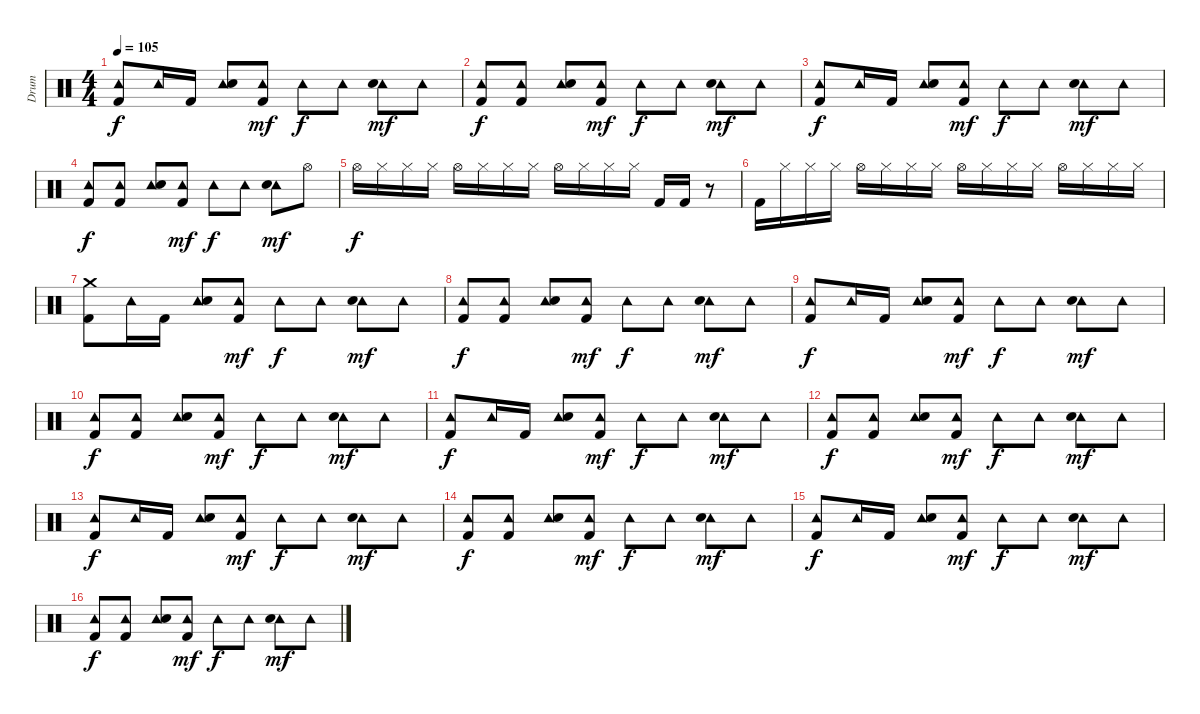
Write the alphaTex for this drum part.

\track ("Drum" "Drum") {instrument percussion}
\staff {score}
\articulation defaults
\ts (4 4)
\tempo 105
\clef neutral
\ks c
("Tambourine (hit)" "Kick (hit) 2").8{dy f} "Tambourine (hit)".16 "Kick (hit) 2".16 ("Tambourine (hit)" "Electric Snare (hit)").8 ("Tambourine (hit)" "Kick (hit) 2").8{dy mf} "Tambourine (hit)".8{dy f} "Tambourine (hit)".8 ("Tambourine (hit)" "Electric Snare (hit)").8{dy mf} "Tambourine (hit)".8 |
("Tambourine (hit)" "Kick (hit) 2").8{dy f} ("Tambourine (hit)" "Kick (hit) 2").8 ("Tambourine (hit)" "Electric Snare (hit)").8 ("Tambourine (hit)" "Kick (hit) 2").8{dy mf} "Tambourine (hit)".8{dy f} "Tambourine (hit)".8 ("Tambourine (hit)" "Electric Snare (hit)").8{dy mf} "Tambourine (hit)".8 |
("Tambourine (hit)" "Kick (hit) 2").8{dy f} "Tambourine (hit)".16 "Kick (hit) 2".16 ("Tambourine (hit)" "Electric Snare (hit)").8 ("Tambourine (hit)" "Kick (hit) 2").8{dy mf} "Tambourine (hit)".8{dy f} "Tambourine (hit)".8 ("Tambourine (hit)" "Electric Snare (hit)").8{dy mf} "Tambourine (hit)".8 |
("Tambourine (hit)" "Kick (hit) 2").8{dy f} ("Tambourine (hit)" "Kick (hit) 2").8 ("Tambourine (hit)" "Electric Snare (hit)").8 ("Tambourine (hit)" "Kick (hit) 2").8{dy mf} "Tambourine (hit)".8{dy f} "Tambourine (hit)".8 ("Tambourine (hit)" "Electric Snare (hit)").8{dy mf} "Hi-Hat (open)".8 |
"Hi-Hat (open)".16{dy f} "Hi-Hat (closed)".16 "Hi-Hat (closed)".16 "Hi-Hat (closed)".16 "Hi-Hat (open)".16 "Hi-Hat (closed)".16 "Hi-Hat (closed)".16 "Hi-Hat (closed)".16 "Hi-Hat (open)".16 "Hi-Hat (closed)".16 "Hi-Hat (closed)".16 "Hi-Hat (closed)".16 "Kick (hit) 2".16 "Kick (hit) 2".16 r.8 |
"Kick (hit) 2".16 "Hi-Hat (closed)".16 "Hi-Hat (closed)".16 "Hi-Hat (closed)".16 "Hi-Hat (open)".16 "Hi-Hat (closed)".16 "Hi-Hat (closed)".16 "Hi-Hat (closed)".16 "Hi-Hat (open)".16 "Hi-Hat (closed)".16 "Hi-Hat (closed)".16 "Hi-Hat (closed)".16 "Hi-Hat (open)".16 "Hi-Hat (closed)".16 "Hi-Hat (closed)".16 "Hi-Hat (closed)".16 |
("Crash medium (hit)" "Kick (hit) 2").8 "Tambourine (hit)".16 "Kick (hit) 2".16 ("Tambourine (hit)" "Electric Snare (hit)").8 ("Tambourine (hit)" "Kick (hit) 2").8{dy mf} "Tambourine (hit)".8{dy f} "Tambourine (hit)".8 ("Tambourine (hit)" "Electric Snare (hit)").8{dy mf} "Tambourine (hit)".8 |
("Tambourine (hit)" "Kick (hit) 2").8{dy f} ("Tambourine (hit)" "Kick (hit) 2").8 ("Tambourine (hit)" "Electric Snare (hit)").8 ("Tambourine (hit)" "Kick (hit) 2").8{dy mf} "Tambourine (hit)".8{dy f} "Tambourine (hit)".8 ("Tambourine (hit)" "Electric Snare (hit)").8{dy mf} "Tambourine (hit)".8 |
("Tambourine (hit)" "Kick (hit) 2").8{dy f} "Tambourine (hit)".16 "Kick (hit) 2".16 ("Tambourine (hit)" "Electric Snare (hit)").8 ("Tambourine (hit)" "Kick (hit) 2").8{dy mf} "Tambourine (hit)".8{dy f} "Tambourine (hit)".8 ("Tambourine (hit)" "Electric Snare (hit)").8{dy mf} "Tambourine (hit)".8 |
("Tambourine (hit)" "Kick (hit) 2").8{dy f} ("Tambourine (hit)" "Kick (hit) 2").8 ("Tambourine (hit)" "Electric Snare (hit)").8 ("Tambourine (hit)" "Kick (hit) 2").8{dy mf} "Tambourine (hit)".8{dy f} "Tambourine (hit)".8 ("Tambourine (hit)" "Electric Snare (hit)").8{dy mf} "Tambourine (hit)".8 |
("Tambourine (hit)" "Kick (hit) 2").8{dy f} "Tambourine (hit)".16 "Kick (hit) 2".16 ("Tambourine (hit)" "Electric Snare (hit)").8 ("Tambourine (hit)" "Kick (hit) 2").8{dy mf} "Tambourine (hit)".8{dy f} "Tambourine (hit)".8 ("Tambourine (hit)" "Electric Snare (hit)").8{dy mf} "Tambourine (hit)".8 |
("Tambourine (hit)" "Kick (hit) 2").8{dy f} ("Tambourine (hit)" "Kick (hit) 2").8 ("Tambourine (hit)" "Electric Snare (hit)").8 ("Tambourine (hit)" "Kick (hit) 2").8{dy mf} "Tambourine (hit)".8{dy f} "Tambourine (hit)".8 ("Tambourine (hit)" "Electric Snare (hit)").8{dy mf} "Tambourine (hit)".8 |
("Tambourine (hit)" "Kick (hit) 2").8{dy f} "Tambourine (hit)".16 "Kick (hit) 2".16 ("Tambourine (hit)" "Electric Snare (hit)").8 ("Tambourine (hit)" "Kick (hit) 2").8{dy mf} "Tambourine (hit)".8{dy f} "Tambourine (hit)".8 ("Tambourine (hit)" "Electric Snare (hit)").8{dy mf} "Tambourine (hit)".8 |
("Tambourine (hit)" "Kick (hit) 2").8{dy f} ("Tambourine (hit)" "Kick (hit) 2").8 ("Tambourine (hit)" "Electric Snare (hit)").8 ("Tambourine (hit)" "Kick (hit) 2").8{dy mf} "Tambourine (hit)".8{dy f} "Tambourine (hit)".8 ("Tambourine (hit)" "Electric Snare (hit)").8{dy mf} "Tambourine (hit)".8 |
("Tambourine (hit)" "Kick (hit) 2").8{dy f} "Tambourine (hit)".16 "Kick (hit) 2".16 ("Tambourine (hit)" "Electric Snare (hit)").8 ("Tambourine (hit)" "Kick (hit) 2").8{dy mf} "Tambourine (hit)".8{dy f} "Tambourine (hit)".8 ("Tambourine (hit)" "Electric Snare (hit)").8{dy mf} "Tambourine (hit)".8 |
("Tambourine (hit)" "Kick (hit) 2").8{dy f} ("Tambourine (hit)" "Kick (hit) 2").8 ("Tambourine (hit)" "Electric Snare (hit)").8 ("Tambourine (hit)" "Kick (hit) 2").8{dy mf} "Tambourine (hit)".8{dy f} "Tambourine (hit)".8 ("Tambourine (hit)" "Electric Snare (hit)").8{dy mf} "Tambourine (hit)".8
